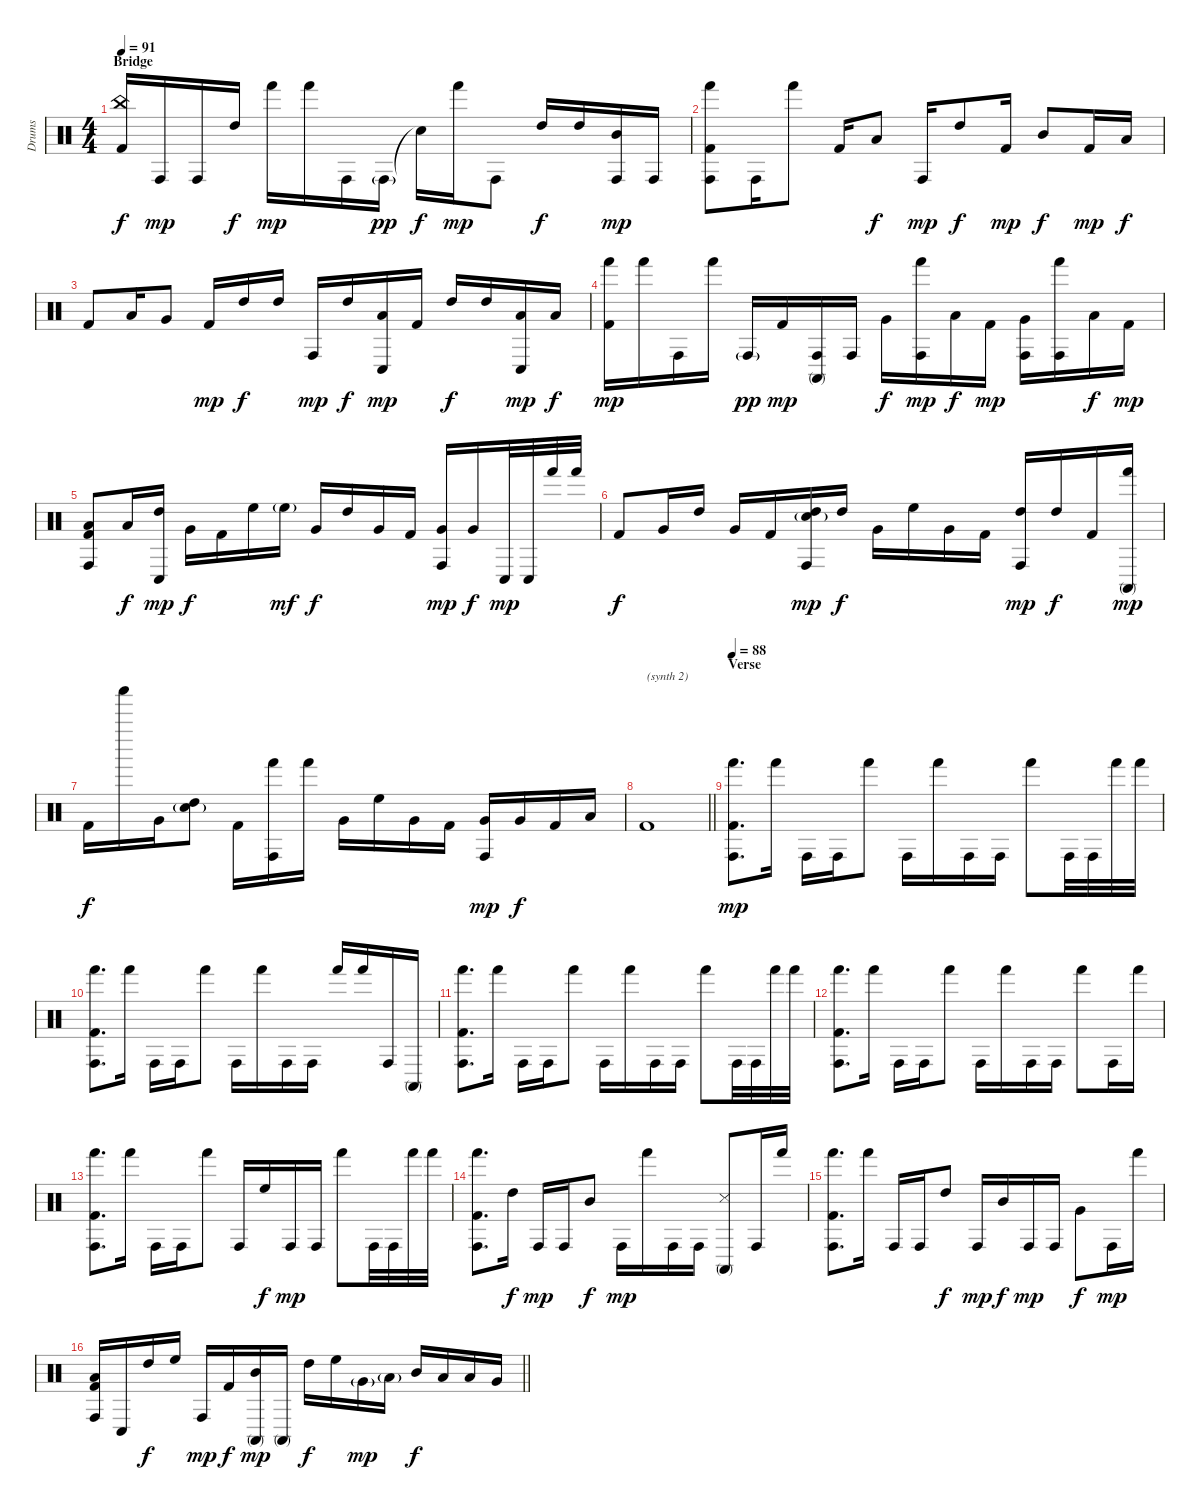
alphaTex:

\track ("Drums" "Drums") {instrument percussion}
\staff {score}
\articulation defaults
\ts (4 4)
\section ("" "Bridge")
\tempo 91
\clef neutral
\ks c
("China (hit)" "Kick (hit) 2").16{dy f} "Conga high (hit)".16{dy mp} "Conga high (hit)".16 "High Tom (hit)".16{dy f} "Hand (hit)".16{dy mp} "Hand (hit)".16 "Conga high (hit)".16 "Conga high (hit)"{g}.16{dy pp} "Snare (hit)"{t}.16{dy f} "Hand (hit)".16{dy mp} "Conga high (hit)".8 "High Tom (hit)".16{dy f} "High Tom (hit)".16 ("Mid Tom (hit)" "Conga high (hit)").16{dy mp} "Conga high (hit)".16 |
("Conga high (hit)" "Hand (hit)" "Kick (hit) 2").8 "Conga high (hit)".16 "Hand (hit)".8 "Kick (hit) 2".16 "Low Tom (hit)".8{dy f} "Conga high (hit)".16{dy mp} "High Tom (hit)".8{dy f} "Kick (hit) 2".16{dy mp} "Mid Tom (hit)".8{dy f} "Kick (hit) 2".16{dy mp} "Low Tom (hit)".16{dy f} |
"Kick (hit) 2".8 "Low Floor Tom (hit)".16 "Very Low Tom (hit)".8 "Kick (hit) 2".16{dy mp} "High Tom (hit)".16{dy f} "High Tom (hit)".16 "Conga high (hit)".16{dy mp} "High Tom (hit)".16{dy f} ("Low Tom (hit)" "Conga low (hit)").16{dy mp} "Kick (hit) 2".16 "High Tom (hit)".16{dy f} "High Tom (hit)".16 ("Low Tom (hit)" "Conga low (hit)").16{dy mp} "Low Tom (hit)".16{dy f} |
("Hand (hit)" "Kick (hit) 2").16{dy mp} "Hand (hit)".16 "Conga high (hit)".16 "Hand (hit)".16 "Conga high (hit)"{g}.16{dy pp} "Kick (hit) 2".16{dy mp} ("Conga high (mute)" "Conga high (hit)").16 "Conga high (hit)".16 "Very Low Tom (hit)".16{dy f} ("Hand (hit)" "Conga high (hit)").16{dy mp} "Low Floor Tom (hit)".16{dy f} "Kick (hit) 2".16{dy mp} ("Very Low Tom (hit)" "Conga high (hit)").16 ("Hand (hit)" "Conga high (hit)").16 "Low Floor Tom (hit)".16{dy f} "Kick (hit) 2".16{dy mp} |
("Low Floor Tom (hit)" "Conga high (hit)" "Kick (hit) 2").8 "Low Floor Tom (hit)".16{dy f} ("High Tom (hit)" "Conga low (hit)").16{dy mp} "Very Low Tom (hit)".16{dy f} "Kick (hit) 2".16 "High Floor Tom (hit)".16 "High Floor Tom (hit)"{g}.16{dy mf} "Very Low Tom (hit)".16{dy f} "High Tom (hit)".16 "Very Low Tom (hit)".16 "Kick (hit) 2".16 ("Very Low Tom (hit)" "Conga high (hit)").16{dy mp} "Very Low Tom (hit)".16{dy f} "Conga low (hit)".32{dy mp} "Conga low (hit)".32 "Hand (hit)".32 "Hand (hit)".32 |
"Kick (hit) 2".8{dy f} "Very Low Tom (hit)".16 "High Tom (hit)".16 "Very Low Tom (hit)".16 "Kick (hit) 2".16 ("Snare (hit) 2"{g} "High Tom (hit)" "Conga high (hit)").16{dy mp} "High Tom (hit)".16{dy f} "Very Low Tom (hit)".16 "High Floor Tom (hit)".16 "Very Low Tom (hit)".16 "Kick (hit) 2".16 ("High Tom (hit)" "Conga high (hit)").16{dy mp} "High Tom (hit)".16{dy f} "Kick (hit) 2".16 ("Hand (hit)" "Conga high (mute)").16{dy mp} |
"Kick (hit) 2".16{dy f} "Shaker (hit)".16 "Very Low Tom (hit)".16 ("High Tom (hit)" "Snare (hit) 2"{g}).8 "Kick (hit) 2".16 ("Hand (hit)" "Conga high (hit)").16 "Hand (hit)".16 "Very Low Tom (hit)".16 "High Floor Tom (hit)".16 "Very Low Tom (hit)".16 "Kick (hit) 2".16 ("Very Low Tom (hit)" "Conga high (hit)").16{dy mp} "Very Low Tom (hit)".16{dy f} "Kick (hit) 2".16 "Low Tom (hit)".16 |
\barLineRight lightlight "Kick (hit) 2".1{txt "(synth 2)"}
|
\section ("" "Verse")
\tempo 88
("Hand (hit)" "Conga high (hit)" "Kick (hit) 2").8{d dy mp} "Hand (hit)".16 "Conga high (hit)".16 "Conga high (hit)".16 "Hand (hit)".8 "Conga high (hit)".16 "Hand (hit)".16 "Conga high (hit)".16 "Conga high (hit)".16 "Hand (hit)".8 "Conga high (hit)".32 "Conga high (hit)".32 "Hand (hit)".32 "Hand (hit)".32 |
("Hand (hit)" "Conga high (hit)" "Kick (hit) 2").8{d} "Hand (hit)".16 "Conga high (hit)".16 "Conga high (hit)".16 "Hand (hit)".8 "Conga high (hit)".16 "Hand (hit)".16 "Conga high (hit)".16 "Conga high (hit)".16 "Hand (hit)".16 "Hand (hit)".16 "Conga high (hit)".16 "Conga high (mute)".16 |
("Hand (hit)" "Conga high (hit)" "Kick (hit) 2").8{d} "Hand (hit)".16 "Conga high (hit)".16 "Conga high (hit)".16 "Hand (hit)".8 "Conga high (hit)".16 "Hand (hit)".16 "Conga high (hit)".16 "Conga high (hit)".16 "Hand (hit)".8 "Conga high (hit)".32 "Conga high (hit)".32 "Hand (hit)".32 "Hand (hit)".32 |
("Hand (hit)" "Conga high (hit)" "Kick (hit) 2").8{d} "Hand (hit)".16 "Conga high (hit)".16 "Conga high (hit)".16 "Hand (hit)".8 "Conga high (hit)".16 "Hand (hit)".16 "Conga high (hit)".16 "Conga high (hit)".16 "Hand (hit)".8 "Conga high (hit)".16 "Hand (hit)".16 |
("Hand (hit)" "Conga high (hit)" "Kick (hit) 2").8{d} "Hand (hit)".16 "Conga high (hit)".16 "Conga high (hit)".16 "Hand (hit)".8 "Conga high (hit)".16 "High Floor Tom (hit)".16{dy f} "Conga high (hit)".16{dy mp} "Conga high (hit)".16 "Hand (hit)".8 "Conga high (hit)".32 "Conga high (hit)".32 "Hand (hit)".32 "Hand (hit)".32 |
("Hand (hit)" "Conga high (hit)" "Kick (hit) 2").8{d} "High Tom (hit)".16{dy f} "Conga high (hit)".16{dy mp} "Conga high (hit)".16 "Mid Tom (hit)".8{dy f} "Conga high (hit)".16{dy mp} "Hand (hit)".16 "Conga high (hit)".16 "Conga high (hit)".16 ("Snare (side stick) 3" "Conga high (mute)").8 "Conga high (hit)".16 "Hand (hit)".16 |
("Hand (hit)" "Conga high (hit)" "Kick (hit) 2").8{d} "Hand (hit)".16 "Conga high (hit)".16 "Conga high (hit)".16 "High Tom (hit)".8{dy f} "Conga high (hit)".16{dy mp} "Mid Tom (hit)".16{dy f} "Conga high (hit)".16{dy mp} "Conga high (hit)".16 "Very Low Tom (hit)".8{dy f} "Conga high (hit)".16{dy mp} "Hand (hit)".16 |
\barLineRight lightlight
("Low Floor Tom (hit)" "Conga high (hit)" "Kick (hit) 2").16 "Conga low (hit)".16 "High Tom (hit)".16{dy f} "High Floor Tom (hit)".16 "Conga high (hit)".16{dy mp} "Kick (hit) 2".16{dy f} ("Mid Tom (hit)" "Conga high (mute)").16{dy mp} "Conga high (mute)".16 "High Tom (hit)".16{dy f} "High Floor Tom (hit)".16 "Very Low Tom (hit)"{g}.16{dy mp} "Low Floor Tom (hit)"{g}.16 "Mid Tom (hit)".16{dy f} "Low Tom (hit)".16 "Low Tom (hit)".16 "Very Low Tom (hit)".16
